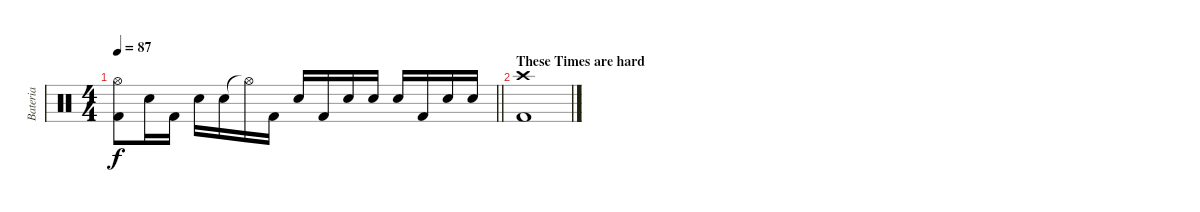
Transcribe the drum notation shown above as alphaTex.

\track ("Bateria" "Bateria") {instrument percussion}
\staff {score}
\articulation defaults
\ts (4 4)
\tempo 87
\clef neutral
\barLineRight lightlight
\ks c
("Hi-Hat (open)" "Kick (hit) 2").8{dy f} "Snare (hit) 2".16 "Kick (hit) 2".16 "Snare (hit) 2".16 "Snare (hit) 2".16 "Hi-Hat (open)"{t}.16 "Kick (hit) 2".16 "Snare (hit) 2".16 "Kick (hit) 2".16 "Snare (hit) 2".16 "Snare (hit) 2".16 "Snare (hit) 2".16 "Kick (hit) 2".16 "Snare (hit) 2".16 "Snare (hit) 2".16 |
\section ("" "These Times are hard")
("Crash high (hit)" "Kick (hit) 2").1
